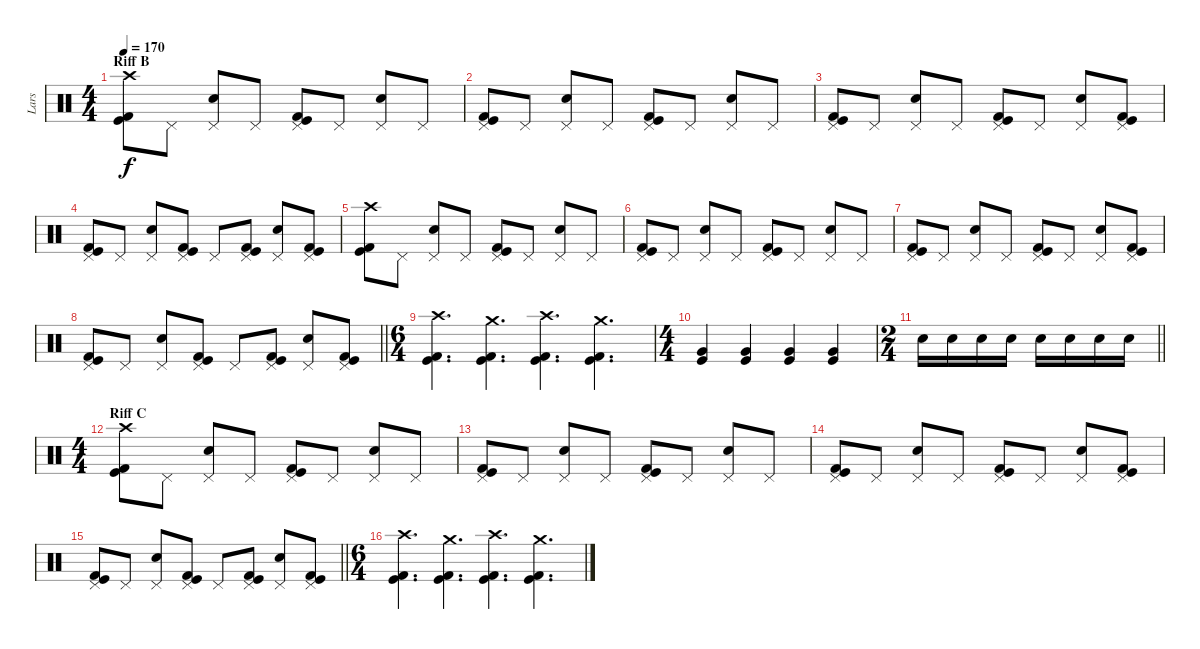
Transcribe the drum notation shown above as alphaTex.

\track ("Lars" "Lars") {instrument percussion}
\staff {score}
\articulation defaults
\ts (4 4)
\section ("" "Riff B")
\tempo 170
\clef neutral
\ks c
("Crash high (hit)" "Kick (hit)" "Kick (hit) 2").8{dy f} "Pedal Hi-Hat (hit)".8 ("Pedal Hi-Hat (hit)" "Electric Snare (hit)").8 "Pedal Hi-Hat (hit)".8 ("Pedal Hi-Hat (hit)" "Kick (hit)" "Kick (hit) 2").8 "Pedal Hi-Hat (hit)".8 ("Pedal Hi-Hat (hit)" "Electric Snare (hit)").8 "Pedal Hi-Hat (hit)".8 |
("Pedal Hi-Hat (hit)" "Kick (hit)" "Kick (hit) 2").8 "Pedal Hi-Hat (hit)".8 ("Pedal Hi-Hat (hit)" "Electric Snare (hit)").8 "Pedal Hi-Hat (hit)".8 ("Pedal Hi-Hat (hit)" "Kick (hit)" "Kick (hit) 2").8 "Pedal Hi-Hat (hit)".8 ("Pedal Hi-Hat (hit)" "Electric Snare (hit)").8 "Pedal Hi-Hat (hit)".8 |
("Pedal Hi-Hat (hit)" "Kick (hit)" "Kick (hit) 2").8 "Pedal Hi-Hat (hit)".8 ("Pedal Hi-Hat (hit)" "Electric Snare (hit)").8 "Pedal Hi-Hat (hit)".8 ("Pedal Hi-Hat (hit)" "Kick (hit)" "Kick (hit) 2").8 "Pedal Hi-Hat (hit)".8 ("Pedal Hi-Hat (hit)" "Electric Snare (hit)").8 ("Pedal Hi-Hat (hit)" "Kick (hit)" "Kick (hit) 2").8 |
("Pedal Hi-Hat (hit)" "Kick (hit)" "Kick (hit) 2").8 "Pedal Hi-Hat (hit)".8 ("Pedal Hi-Hat (hit)" "Electric Snare (hit)").8 ("Pedal Hi-Hat (hit)" "Kick (hit)" "Kick (hit) 2").8 "Pedal Hi-Hat (hit)".8 ("Pedal Hi-Hat (hit)" "Kick (hit)" "Kick (hit) 2").8 ("Pedal Hi-Hat (hit)" "Electric Snare (hit)").8 ("Pedal Hi-Hat (hit)" "Kick (hit)" "Kick (hit) 2").8 |
("Crash high (hit)" "Kick (hit)" "Kick (hit) 2").8 "Pedal Hi-Hat (hit)".8 ("Pedal Hi-Hat (hit)" "Electric Snare (hit)").8 "Pedal Hi-Hat (hit)".8 ("Pedal Hi-Hat (hit)" "Kick (hit)" "Kick (hit) 2").8 "Pedal Hi-Hat (hit)".8 ("Pedal Hi-Hat (hit)" "Electric Snare (hit)").8 "Pedal Hi-Hat (hit)".8 |
("Pedal Hi-Hat (hit)" "Kick (hit)" "Kick (hit) 2").8 "Pedal Hi-Hat (hit)".8 ("Pedal Hi-Hat (hit)" "Electric Snare (hit)").8 "Pedal Hi-Hat (hit)".8 ("Pedal Hi-Hat (hit)" "Kick (hit)" "Kick (hit) 2").8 "Pedal Hi-Hat (hit)".8 ("Pedal Hi-Hat (hit)" "Electric Snare (hit)").8 "Pedal Hi-Hat (hit)".8 |
("Pedal Hi-Hat (hit)" "Kick (hit)" "Kick (hit) 2").8 "Pedal Hi-Hat (hit)".8 ("Pedal Hi-Hat (hit)" "Electric Snare (hit)").8 "Pedal Hi-Hat (hit)".8 ("Pedal Hi-Hat (hit)" "Kick (hit)" "Kick (hit) 2").8 "Pedal Hi-Hat (hit)".8 ("Pedal Hi-Hat (hit)" "Electric Snare (hit)").8 ("Pedal Hi-Hat (hit)" "Kick (hit)" "Kick (hit) 2").8 |
\barLineRight lightlight
("Pedal Hi-Hat (hit)" "Kick (hit)" "Kick (hit) 2").8 "Pedal Hi-Hat (hit)".8 ("Pedal Hi-Hat (hit)" "Electric Snare (hit)").8 ("Pedal Hi-Hat (hit)" "Kick (hit)" "Kick (hit) 2").8 "Pedal Hi-Hat (hit)".8 ("Pedal Hi-Hat (hit)" "Kick (hit)" "Kick (hit) 2").8 ("Pedal Hi-Hat (hit)" "Electric Snare (hit)").8 ("Pedal Hi-Hat (hit)" "Kick (hit)" "Kick (hit) 2").8 |
\ts (6 4)
\section ("" "")
("Crash high (hit)" "Kick (hit)" "Kick (hit) 2").4{d} ("Crash medium (hit)" "Kick (hit)" "Kick (hit) 2").4{d} ("Crash high (hit)" "Kick (hit)" "Kick (hit) 2").4{d} ("Crash medium (hit)" "Kick (hit)" "Kick (hit) 2").4{d} |
\ts (4 4)
("Kick (hit)" "Very Low Tom (hit)").4 ("Kick (hit)" "Very Low Tom (hit)").4 ("Kick (hit)" "Very Low Tom (hit)").4 ("Kick (hit)" "Very Low Tom (hit)").4 |
\ts (2 4)
\barLineRight lightlight "Electric Snare (hit)".16 "Electric Snare (hit)".16 "Electric Snare (hit)".16 "Electric Snare (hit)".16 "Electric Snare (hit)".16 "Electric Snare (hit)".16 "Electric Snare (hit)".16 "Electric Snare (hit)".16
|
\ts (4 4)
\section ("" "Riff C")
("Crash high (hit)" "Kick (hit)" "Kick (hit) 2").8 "Pedal Hi-Hat (hit)".8 ("Pedal Hi-Hat (hit)" "Electric Snare (hit)").8 "Pedal Hi-Hat (hit)".8 ("Pedal Hi-Hat (hit)" "Kick (hit)" "Kick (hit) 2").8 "Pedal Hi-Hat (hit)".8 ("Pedal Hi-Hat (hit)" "Electric Snare (hit)").8 "Pedal Hi-Hat (hit)".8 |
("Pedal Hi-Hat (hit)" "Kick (hit)" "Kick (hit) 2").8 "Pedal Hi-Hat (hit)".8 ("Pedal Hi-Hat (hit)" "Electric Snare (hit)").8 "Pedal Hi-Hat (hit)".8 ("Pedal Hi-Hat (hit)" "Kick (hit)" "Kick (hit) 2").8 "Pedal Hi-Hat (hit)".8 ("Pedal Hi-Hat (hit)" "Electric Snare (hit)").8 "Pedal Hi-Hat (hit)".8 |
("Pedal Hi-Hat (hit)" "Kick (hit)" "Kick (hit) 2").8 "Pedal Hi-Hat (hit)".8 ("Pedal Hi-Hat (hit)" "Electric Snare (hit)").8 "Pedal Hi-Hat (hit)".8 ("Pedal Hi-Hat (hit)" "Kick (hit)" "Kick (hit) 2").8 "Pedal Hi-Hat (hit)".8 ("Pedal Hi-Hat (hit)" "Electric Snare (hit)").8 ("Pedal Hi-Hat (hit)" "Kick (hit)" "Kick (hit) 2").8 |
\barLineRight lightlight
("Pedal Hi-Hat (hit)" "Kick (hit)" "Kick (hit) 2").8 "Pedal Hi-Hat (hit)".8 ("Pedal Hi-Hat (hit)" "Electric Snare (hit)").8 ("Pedal Hi-Hat (hit)" "Kick (hit)" "Kick (hit) 2").8 "Pedal Hi-Hat (hit)".8 ("Pedal Hi-Hat (hit)" "Kick (hit)" "Kick (hit) 2").8 ("Pedal Hi-Hat (hit)" "Electric Snare (hit)").8 ("Pedal Hi-Hat (hit)" "Kick (hit)" "Kick (hit) 2").8 |
\ts (6 4)
("Crash high (hit)" "Kick (hit)" "Kick (hit) 2").4{d} ("Crash medium (hit)" "Kick (hit)" "Kick (hit) 2").4{d} ("Crash high (hit)" "Kick (hit)" "Kick (hit) 2").4{d} ("Crash medium (hit)" "Kick (hit)" "Kick (hit) 2").4{d}
